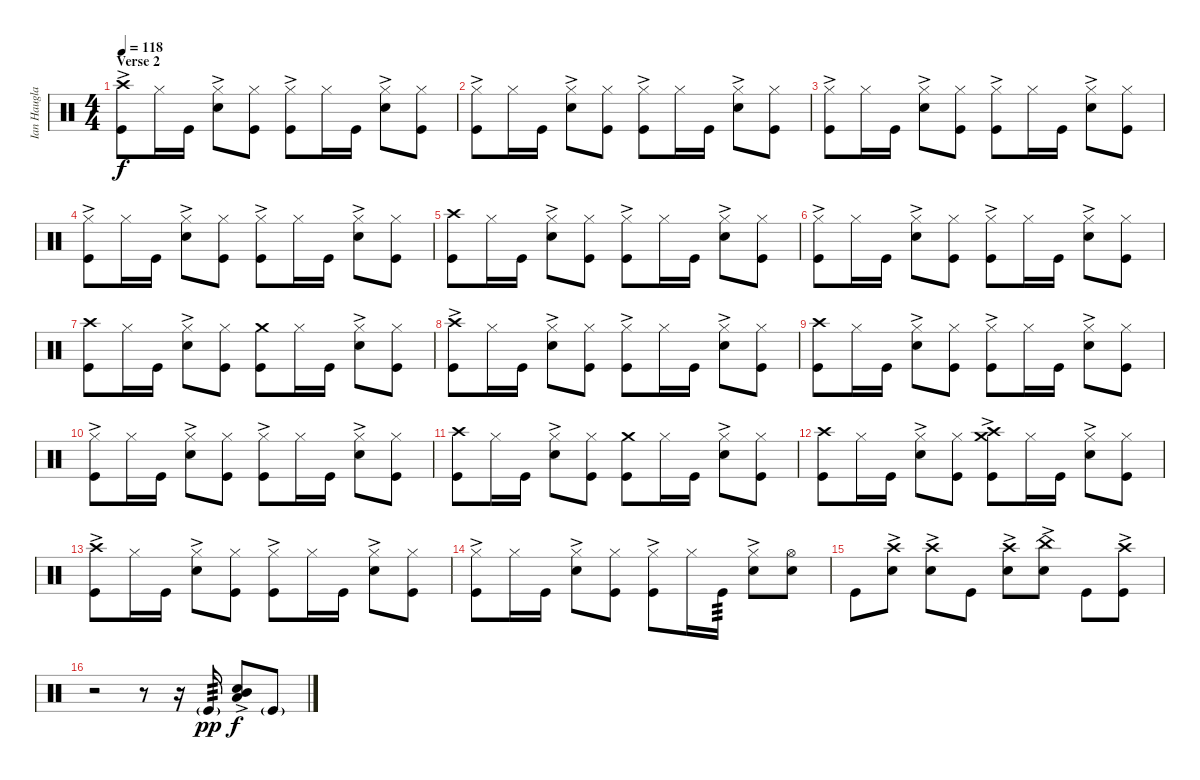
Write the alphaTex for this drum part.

\track ("Ian Haugland - Tama Imperialstar Kit - " "Ian Haugla") {instrument percussion}
\staff {score}
\articulation defaults
\ts (4 4)
\section ("" "Verse 2")
\tempo 118
\clef neutral
\ks c
("Crash high (hit)"{ac} "Kick (hit)").8{dy f} "Hi-Hat (closed)".16 "Kick (hit)".16 ("Hi-Hat (closed)"{ac} "Snare (hit) 2").8 ("Hi-Hat (closed)" "Kick (hit)").8 ("Hi-Hat (closed)"{ac} "Kick (hit)").8 "Hi-Hat (closed)".16 "Kick (hit)".16 ("Hi-Hat (closed)"{ac} "Snare (hit) 2").8 ("Hi-Hat (closed)" "Kick (hit)").8 |
("Hi-Hat (closed)"{ac} "Kick (hit)").8 "Hi-Hat (closed)".16 "Kick (hit)".16 ("Hi-Hat (closed)"{ac} "Snare (hit) 2").8 ("Hi-Hat (closed)" "Kick (hit)").8 ("Hi-Hat (closed)"{ac} "Kick (hit)").8 "Hi-Hat (closed)".16 "Kick (hit)".16 ("Hi-Hat (closed)"{ac} "Snare (hit) 2").8 ("Hi-Hat (closed)" "Kick (hit)").8 |
("Hi-Hat (closed)"{ac} "Kick (hit)").8 "Hi-Hat (closed)".16 "Kick (hit)".16 ("Hi-Hat (closed)"{ac} "Snare (hit) 2").8 ("Hi-Hat (closed)" "Kick (hit)").8 ("Hi-Hat (closed)"{ac} "Kick (hit)").8 "Hi-Hat (closed)".16 "Kick (hit)".16 ("Hi-Hat (closed)"{ac} "Snare (hit) 2").8 ("Hi-Hat (closed)" "Kick (hit)").8 |
("Hi-Hat (closed)"{ac} "Kick (hit)").8 "Hi-Hat (closed)".16 "Kick (hit)".16 ("Hi-Hat (closed)"{ac} "Snare (hit) 2").8 ("Hi-Hat (closed)" "Kick (hit)").8 ("Hi-Hat (closed)"{ac} "Kick (hit)").8 "Hi-Hat (closed)".16 "Kick (hit)".16 ("Hi-Hat (closed)"{ac} "Snare (hit) 2").8 ("Hi-Hat (closed)" "Kick (hit)").8 |
("Crash high (hit)" "Kick (hit)").8 "Hi-Hat (closed)".16 "Kick (hit)".16 ("Hi-Hat (closed)"{ac} "Snare (hit) 2").8 ("Hi-Hat (closed)" "Kick (hit)").8 ("Hi-Hat (closed)"{ac} "Kick (hit)").8 "Hi-Hat (closed)".16 "Kick (hit)".16 ("Hi-Hat (closed)"{ac} "Snare (hit) 2").8 ("Hi-Hat (closed)" "Kick (hit)").8 |
("Hi-Hat (closed)"{ac} "Kick (hit)").8 "Hi-Hat (closed)".16 "Kick (hit)".16 ("Hi-Hat (closed)"{ac} "Snare (hit) 2").8 ("Hi-Hat (closed)" "Kick (hit)").8 ("Hi-Hat (closed)"{ac} "Kick (hit)").8 "Hi-Hat (closed)".16 "Kick (hit)".16 ("Hi-Hat (closed)"{ac} "Snare (hit) 2").8 ("Hi-Hat (closed)" "Kick (hit)").8 |
("Crash high (hit)" "Kick (hit)").8 "Hi-Hat (closed)".16 "Kick (hit)".16 ("Hi-Hat (closed)"{ac} "Snare (hit) 2").8 ("Hi-Hat (closed)" "Kick (hit)").8 ("Crash medium (hit)" "Kick (hit)").8 "Hi-Hat (closed)".16 "Kick (hit)".16 ("Hi-Hat (closed)"{ac} "Snare (hit) 2").8 ("Hi-Hat (closed)" "Kick (hit)").8 |
("Crash high (hit)"{ac} "Kick (hit)").8 "Hi-Hat (closed)".16 "Kick (hit)".16 ("Hi-Hat (closed)"{ac} "Snare (hit) 2").8 ("Hi-Hat (closed)" "Kick (hit)").8 ("Hi-Hat (closed)"{ac} "Kick (hit)").8 "Hi-Hat (closed)".16 "Kick (hit)".16 ("Hi-Hat (closed)"{ac} "Snare (hit) 2").8 ("Hi-Hat (closed)" "Kick (hit)").8 |
("Crash high (hit)" "Kick (hit)").8 "Hi-Hat (closed)".16 "Kick (hit)".16 ("Hi-Hat (closed)"{ac} "Snare (hit) 2").8 ("Hi-Hat (closed)" "Kick (hit)").8 ("Hi-Hat (closed)"{ac} "Kick (hit)").8 "Hi-Hat (closed)".16 "Kick (hit)".16 ("Hi-Hat (closed)"{ac} "Snare (hit) 2").8 ("Hi-Hat (closed)" "Kick (hit)").8 |
("Hi-Hat (closed)"{ac} "Kick (hit)").8 "Hi-Hat (closed)".16 "Kick (hit)".16 ("Hi-Hat (closed)"{ac} "Snare (hit) 2").8 ("Hi-Hat (closed)" "Kick (hit)").8 ("Hi-Hat (closed)"{ac} "Kick (hit)").8 "Hi-Hat (closed)".16 "Kick (hit)".16 ("Hi-Hat (closed)"{ac} "Snare (hit) 2").8 ("Hi-Hat (closed)" "Kick (hit)").8 |
("Crash high (hit)" "Kick (hit)").8 "Hi-Hat (closed)".16 "Kick (hit)".16 ("Hi-Hat (closed)"{ac} "Snare (hit) 2").8 ("Hi-Hat (closed)" "Kick (hit)").8 ("Crash medium (hit)" "Kick (hit)").8 "Hi-Hat (closed)".16 "Kick (hit)".16 ("Hi-Hat (closed)"{ac} "Snare (hit) 2").8 ("Hi-Hat (closed)" "Kick (hit)").8 |
("Crash high (hit)" "Kick (hit)").8 "Hi-Hat (closed)".16 "Kick (hit)".16 ("Hi-Hat (closed)"{ac} "Snare (hit) 2").8 ("Hi-Hat (closed)" "Kick (hit)").8 ("Crash high (hit)"{ac} "Crash medium (hit)"{ac} "Kick (hit)").8 "Hi-Hat (closed)".16 "Kick (hit)".16 ("Hi-Hat (closed)"{ac} "Snare (hit) 2").8 ("Hi-Hat (closed)" "Kick (hit)").8 |
("Crash high (hit)"{ac} "Kick (hit)").8 "Hi-Hat (closed)".16 "Kick (hit)".16 ("Hi-Hat (closed)"{ac} "Snare (hit) 2").8 ("Hi-Hat (closed)" "Kick (hit)").8 ("Hi-Hat (closed)"{ac} "Kick (hit)").8 "Hi-Hat (closed)".16 "Kick (hit)".16 ("Hi-Hat (closed)"{ac} "Snare (hit) 2").8 ("Hi-Hat (closed)" "Kick (hit)").8 |
("Hi-Hat (closed)"{ac} "Kick (hit)").8 "Hi-Hat (closed)".16 "Kick (hit)".16 ("Hi-Hat (closed)"{ac} "Snare (hit) 2").8 ("Hi-Hat (closed)" "Kick (hit)").8 ("Hi-Hat (closed)"{ac} "Kick (hit)").8 "Hi-Hat (closed)".16 "Kick (hit)".16{tp 3} ("Hi-Hat (closed)"{ac} "Snare (hit) 2").8 ("Hi-Hat (open)" "Snare (hit) 2").8 |
"Kick (hit)".8 ("Crash high (hit)"{ac} "Snare (hit) 2").8 ("Crash high (hit)"{ac} "Snare (hit) 2").8 "Kick (hit)".8 ("Crash high (hit)"{ac} "Snare (hit) 2").8 ("China (hit)"{ac} "Snare (hit) 2").8 "Kick (hit)".8 ("Crash high (hit)"{ac} "Kick (hit)").8 |
r.2 r.8 r.16 "Kick (hit)"{g}.16{tp 3 dy pp} ("Snare (hit) 2"{ac} "Mid Tom (hit)" "Low Floor Tom (hit)").8{dy f} "Kick (hit)"{g}.8
